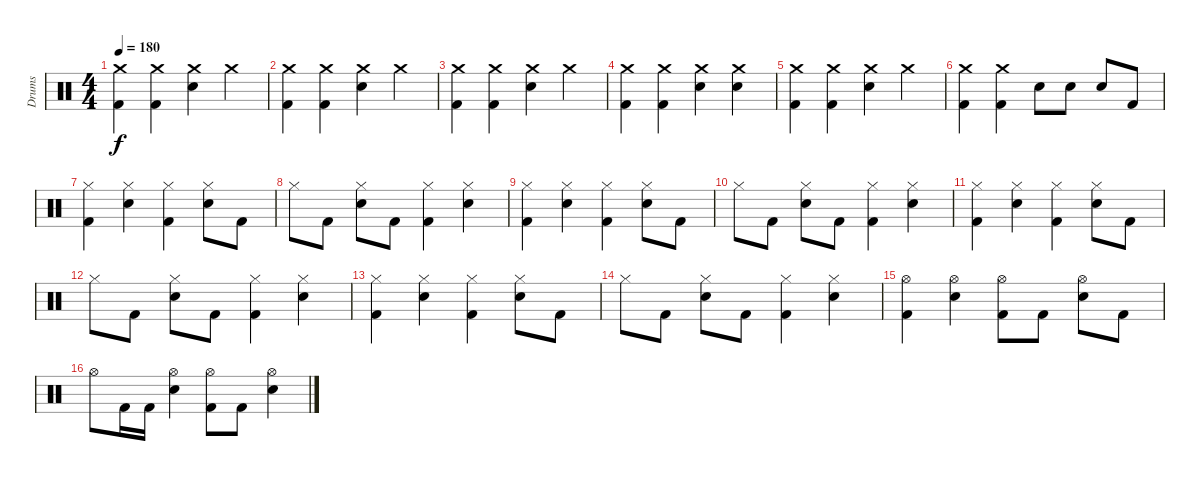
\track ("Drums" "Drums") {instrument percussion}
\staff {score}
\articulation defaults
\ts (4 4)
\tempo 180
\clef neutral
\ks c
("Crash medium (hit)" "Kick (hit) 2").4{dy f} ("Crash medium (hit)" "Kick (hit) 2").4 ("Crash medium (hit)" "Snare (hit) 2").4 "Crash medium (hit)".4 |
("Crash medium (hit)" "Kick (hit) 2").4 ("Crash medium (hit)" "Kick (hit) 2").4 ("Crash medium (hit)" "Snare (hit) 2").4 "Crash medium (hit)".4 |
("Crash medium (hit)" "Kick (hit) 2").4 ("Crash medium (hit)" "Kick (hit) 2").4 ("Crash medium (hit)" "Snare (hit) 2").4 "Crash medium (hit)".4 |
("Crash medium (hit)" "Kick (hit) 2").4 ("Crash medium (hit)" "Kick (hit) 2").4 ("Crash medium (hit)" "Snare (hit) 2").4 ("Crash medium (hit)" "Snare (hit) 2").4 |
("Crash medium (hit)" "Kick (hit) 2").4 ("Crash medium (hit)" "Kick (hit) 2").4 ("Crash medium (hit)" "Snare (hit) 2").4 "Crash medium (hit)".4 |
("Crash medium (hit)" "Kick (hit) 2").4 ("Crash medium (hit)" "Kick (hit) 2").4 "Snare (hit) 2".8 "Snare (hit) 2".8 "Snare (hit) 2".8 "Kick (hit) 2".8 |
("Hi-Hat (closed)" "Kick (hit) 2").4 ("Hi-Hat (closed)" "Snare (hit) 2").4 ("Hi-Hat (closed)" "Kick (hit) 2").4 ("Hi-Hat (closed)" "Snare (hit) 2").8 "Kick (hit) 2".8 |
"Hi-Hat (closed)".8 "Kick (hit) 2".8 ("Hi-Hat (closed)" "Snare (hit) 2").8 "Kick (hit) 2".8 ("Hi-Hat (closed)" "Kick (hit) 2").4 ("Hi-Hat (closed)" "Snare (hit) 2").4 |
("Hi-Hat (closed)" "Kick (hit) 2").4 ("Hi-Hat (closed)" "Snare (hit) 2").4 ("Hi-Hat (closed)" "Kick (hit) 2").4 ("Hi-Hat (closed)" "Snare (hit) 2").8 "Kick (hit) 2".8 |
"Hi-Hat (closed)".8 "Kick (hit) 2".8 ("Hi-Hat (closed)" "Snare (hit) 2").8 "Kick (hit) 2".8 ("Hi-Hat (closed)" "Kick (hit) 2").4 ("Hi-Hat (closed)" "Snare (hit) 2").4 |
("Hi-Hat (closed)" "Kick (hit) 2").4 ("Hi-Hat (closed)" "Snare (hit) 2").4 ("Hi-Hat (closed)" "Kick (hit) 2").4 ("Hi-Hat (closed)" "Snare (hit) 2").8 "Kick (hit) 2".8 |
"Hi-Hat (closed)".8 "Kick (hit) 2".8 ("Hi-Hat (closed)" "Snare (hit) 2").8 "Kick (hit) 2".8 ("Hi-Hat (closed)" "Kick (hit) 2").4 ("Hi-Hat (closed)" "Snare (hit) 2").4 |
("Hi-Hat (closed)" "Kick (hit) 2").4 ("Hi-Hat (closed)" "Snare (hit) 2").4 ("Hi-Hat (closed)" "Kick (hit) 2").4 ("Hi-Hat (closed)" "Snare (hit) 2").8 "Kick (hit) 2".8 |
"Hi-Hat (closed)".8 "Kick (hit) 2".8 ("Hi-Hat (closed)" "Snare (hit) 2").8 "Kick (hit) 2".8 ("Hi-Hat (closed)" "Kick (hit) 2").4 ("Hi-Hat (closed)" "Snare (hit) 2").4 |
("Hi-Hat (open)" "Kick (hit) 2").4 ("Hi-Hat (open)" "Snare (hit) 2").4 ("Hi-Hat (open)" "Kick (hit) 2").8 "Kick (hit) 2".8 ("Hi-Hat (open)" "Snare (hit) 2").8 "Kick (hit) 2".8 |
"Hi-Hat (open)".8 "Kick (hit) 2".16 "Kick (hit) 2".16 ("Hi-Hat (open)" "Snare (hit) 2").4 ("Hi-Hat (open)" "Kick (hit) 2").8 "Kick (hit) 2".8 ("Hi-Hat (open)" "Snare (hit) 2").4
